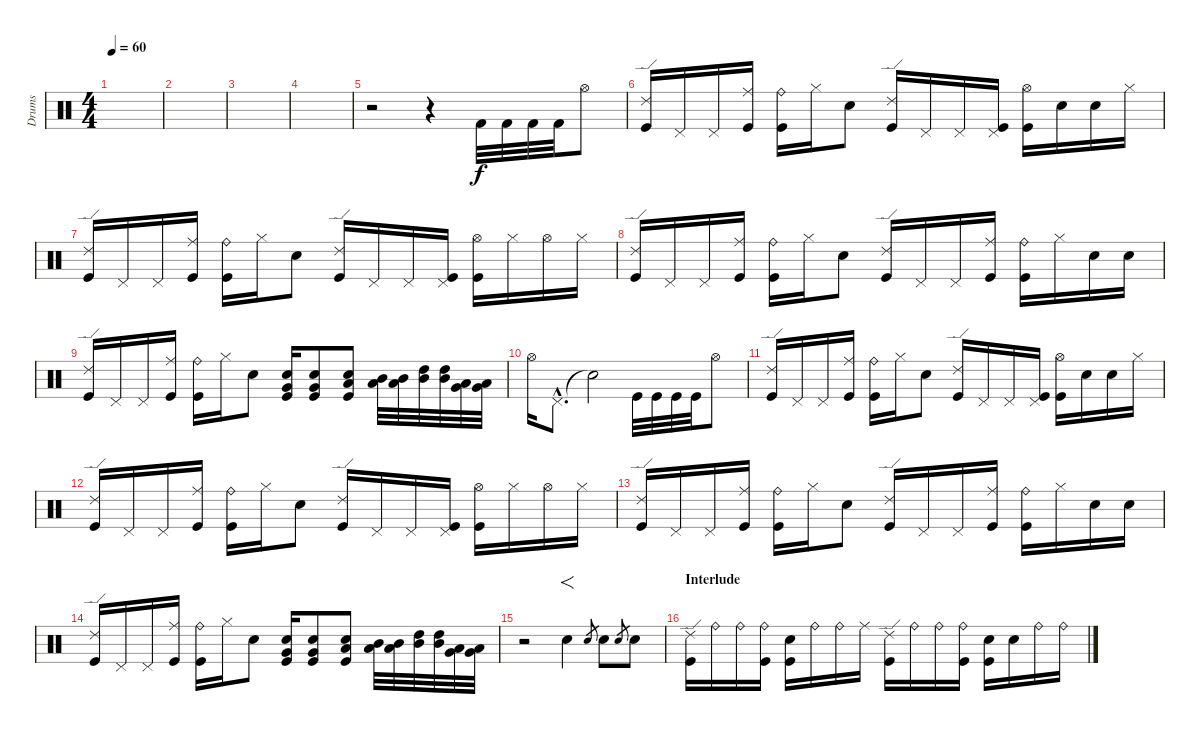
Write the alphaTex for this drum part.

\track ("Drums" "Drums") {instrument percussion}
\staff {score}
\articulation defaults
\ts (4 4)
\tempo 60
\clef neutral
\ks c
|
|
|
|
r.2 r.4 "Kick (hit) 2".32 "Kick (hit) 2".32 "Kick (hit) 2".32 "Kick (hit) 2".32 "Hi-Hat (open)".8 |
("Ride (edge) 2" "Kick (hit)").16 "Pedal Hi-Hat (hit)".16 "Pedal Hi-Hat (hit)".16 ("Ride (middle)" "Kick (hit)").16 ("Ride (bell)" "Kick (hit)").16 "Hi-Hat (closed)".16 "Electric Snare (hit)".8 ("Ride (edge) 2" "Kick (hit)").16 "Pedal Hi-Hat (hit)".16 "Pedal Hi-Hat (hit)".16 ("Pedal Hi-Hat (hit)" "Kick (hit)").16 ("Hi-Hat (open)" "Kick (hit)").16 "Electric Snare (hit)".16 "Electric Snare (hit)".16 "Hi-Hat (closed)".16 |
("Ride (edge) 2" "Kick (hit)").16 "Pedal Hi-Hat (hit)".16 "Pedal Hi-Hat (hit)".16 ("Ride (middle)" "Kick (hit)").16 ("Ride (bell)" "Kick (hit)").16 "Hi-Hat (closed)".16 "Electric Snare (hit)".8 ("Ride (edge) 2" "Kick (hit)").16 "Pedal Hi-Hat (hit)".16 "Pedal Hi-Hat (hit)".16 ("Pedal Hi-Hat (hit)" "Kick (hit)").16 ("Hi-Hat (open)" "Kick (hit)").16 "Hi-Hat (closed)".16 "Hi-Hat (open)".16 "Hi-Hat (closed)".16 |
("Ride (edge) 2" "Kick (hit)").16 "Pedal Hi-Hat (hit)".16 "Pedal Hi-Hat (hit)".16 ("Ride (middle)" "Kick (hit)").16 ("Ride (bell)" "Kick (hit)").16 "Hi-Hat (closed)".16 "Electric Snare (hit)".8 ("Ride (edge) 2" "Kick (hit)").16 "Pedal Hi-Hat (hit)".16 "Pedal Hi-Hat (hit)".16 ("Ride (middle)" "Kick (hit)").16 ("Ride (bell)" "Kick (hit)").16 "Hi-Hat (closed)".16 "Electric Snare (hit)".16 "Electric Snare (hit)".16 |
("Ride (edge) 2" "Kick (hit)").16 "Pedal Hi-Hat (hit)".16 "Pedal Hi-Hat (hit)".16 ("Ride (middle)" "Kick (hit)").16 ("Ride (bell)" "Kick (hit)").16 "Hi-Hat (closed)".16 "Electric Snare (hit)".8 ("Very Low Tom (hit)" "Electric Snare (hit)" "Kick (hit)").16 ("Very Low Tom (hit)" "Electric Snare (hit)" "Kick (hit)").8 ("Low Floor Tom (hit)" "Electric Snare (hit)" "Kick (hit)").8 ("Mid Tom (hit)" "Low Tom (hit)").32 ("Mid Tom (hit)" "Low Tom (hit)").32 ("High Tom (hit)" "Mid Tom (hit)").32 ("High Tom (hit)" "Mid Tom (hit)").32 ("Very Low Tom (hit)" "Low Floor Tom (hit)").32 ("Very Low Tom (hit)" "Low Floor Tom (hit)").32 |
"Hi-Hat (open)".16 "Pedal Hi-Hat (hit)"{hac}.8{d} "Snare (hit)"{t}.2 "Kick (hit)".32 "Kick (hit)".32 "Kick (hit)".32 "Kick (hit)".32 "Hi-Hat (open)".8 |
("Ride (edge) 2" "Kick (hit)").16 "Pedal Hi-Hat (hit)".16 "Pedal Hi-Hat (hit)".16 ("Ride (middle)" "Kick (hit)").16 ("Ride (bell)" "Kick (hit)").16 "Hi-Hat (closed)".16 "Electric Snare (hit)".8 ("Ride (edge) 2" "Kick (hit)").16 "Pedal Hi-Hat (hit)".16 "Pedal Hi-Hat (hit)".16 ("Pedal Hi-Hat (hit)" "Kick (hit)").16 ("Hi-Hat (open)" "Kick (hit)").16 "Electric Snare (hit)".16 "Electric Snare (hit)".16 "Hi-Hat (closed)".16 |
("Ride (edge) 2" "Kick (hit)").16 "Pedal Hi-Hat (hit)".16 "Pedal Hi-Hat (hit)".16 ("Ride (middle)" "Kick (hit)").16 ("Ride (bell)" "Kick (hit)").16 "Hi-Hat (closed)".16 "Electric Snare (hit)".8 ("Ride (edge) 2" "Kick (hit)").16 "Pedal Hi-Hat (hit)".16 "Pedal Hi-Hat (hit)".16 ("Pedal Hi-Hat (hit)" "Kick (hit)").16 ("Hi-Hat (open)" "Kick (hit)").16 "Hi-Hat (closed)".16 "Hi-Hat (open)".16 "Hi-Hat (closed)".16 |
("Ride (edge) 2" "Kick (hit)").16 "Pedal Hi-Hat (hit)".16 "Pedal Hi-Hat (hit)".16 ("Ride (middle)" "Kick (hit)").16 ("Ride (bell)" "Kick (hit)").16 "Hi-Hat (closed)".16 "Electric Snare (hit)".8 ("Ride (edge) 2" "Kick (hit)").16 "Pedal Hi-Hat (hit)".16 "Pedal Hi-Hat (hit)".16 ("Ride (middle)" "Kick (hit)").16 ("Ride (bell)" "Kick (hit)").16 "Hi-Hat (closed)".16 "Electric Snare (hit)".16 "Electric Snare (hit)".16 |
("Ride (edge) 2" "Kick (hit)").16 "Pedal Hi-Hat (hit)".16 "Pedal Hi-Hat (hit)".16 ("Ride (middle)" "Kick (hit)").16 ("Ride (bell)" "Kick (hit)").16 "Hi-Hat (closed)".16 "Electric Snare (hit)".8 ("Very Low Tom (hit)" "Electric Snare (hit)" "Kick (hit)").16 ("Very Low Tom (hit)" "Electric Snare (hit)" "Kick (hit)").8 ("Low Floor Tom (hit)" "Electric Snare (hit)" "Kick (hit)").8 ("Mid Tom (hit)" "Low Tom (hit)").32 ("Mid Tom (hit)" "Low Tom (hit)").32 ("High Tom (hit)" "Mid Tom (hit)").32 ("High Tom (hit)" "Mid Tom (hit)").32 ("Very Low Tom (hit)" "Low Floor Tom (hit)").32 ("Very Low Tom (hit)" "Low Floor Tom (hit)").32 |
r.2 "Snare (hit) 2"{tr (38 64)}.4{f} "Electric Snare (hit)".8{gr} "Electric Snare (hit)".8 "Electric Snare (hit)".8{gr} "Electric Snare (hit)".8 |
\section ("" "Interlude")
("Ride (edge) 2" "Kick (hit)").16 "Ride (bell)".16 "Ride (bell)".16 ("Ride (bell)" "Kick (hit)").16 ("Electric Snare (hit)" "Kick (hit)").16 "Ride (bell)".16 "Ride (bell)".16 "Ride (middle)".16 ("Ride (edge) 2" "Kick (hit)").16 "Ride (bell)".16 "Ride (bell)".16 ("Ride (bell)" "Kick (hit)").16 ("Electric Snare (hit)" "Kick (hit)").16 "Electric Snare (hit)".16 "Ride (bell)".16 "Ride (bell)".16
